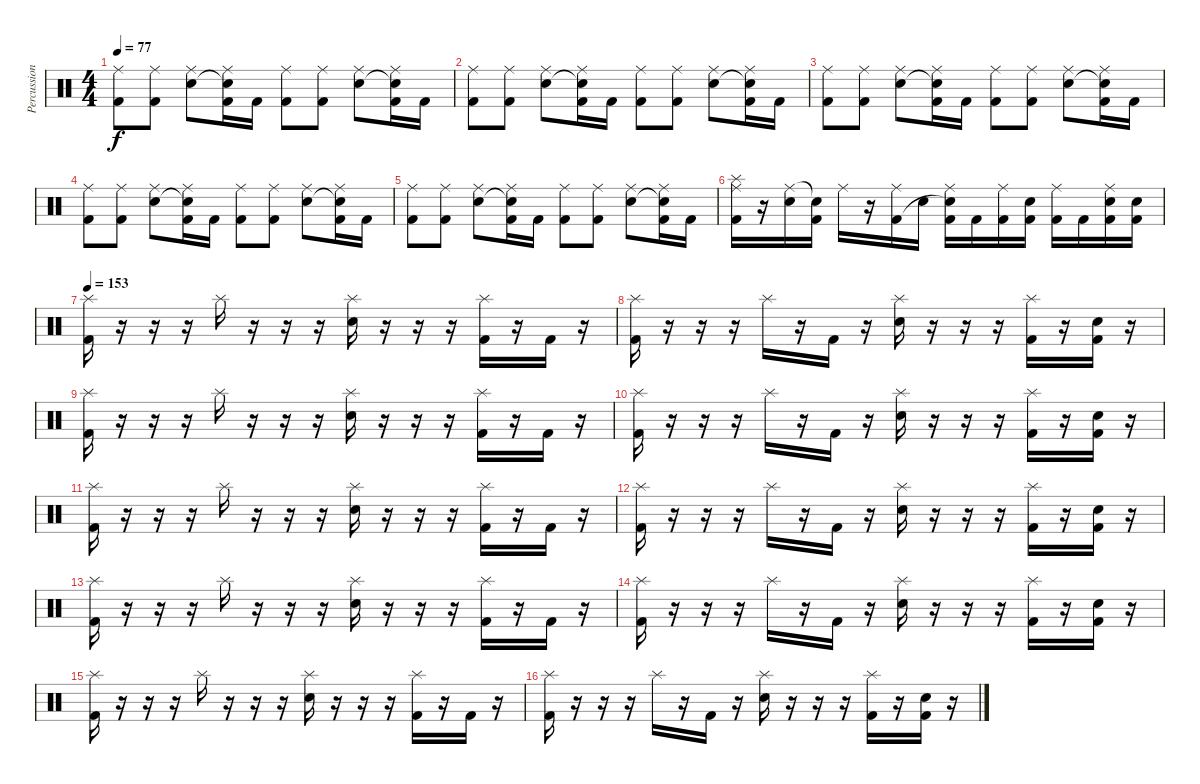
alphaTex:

\track ("Percussion" "Percussion") {instrument percussion}
\staff {score}
\articulation defaults
\ts (4 4)
\tempo 77
\clef neutral
\ks c
("Ride (middle)" "Kick (hit) 2").8{dy f} ("Ride (middle)" "Kick (hit) 2").8 ("Ride (middle)" "Electric Snare (hit)").8 ("Ride (middle)" "Snare (hit)"{t} "Kick (hit) 2").16 "Kick (hit) 2".16 ("Ride (middle)" "Kick (hit) 2").8 ("Ride (middle)" "Kick (hit) 2").8 ("Ride (middle)" "Electric Snare (hit)").8 ("Ride (middle)" "Snare (hit)"{t} "Kick (hit) 2").16 "Kick (hit) 2".16 |
("Ride (middle)" "Kick (hit) 2").8 ("Ride (middle)" "Kick (hit) 2").8 ("Ride (middle)" "Electric Snare (hit)").8 ("Ride (middle)" "Snare (hit)"{t} "Kick (hit) 2").16 "Kick (hit) 2".16 ("Ride (middle)" "Kick (hit) 2").8 ("Ride (middle)" "Kick (hit) 2").8 ("Ride (middle)" "Electric Snare (hit)").8 ("Ride (middle)" "Snare (hit)"{t} "Kick (hit) 2").16 "Kick (hit) 2".16 |
("Ride (middle)" "Kick (hit) 2").8 ("Ride (middle)" "Kick (hit) 2").8 ("Ride (middle)" "Electric Snare (hit)").8 ("Ride (middle)" "Snare (hit)"{t} "Kick (hit) 2").16 "Kick (hit) 2".16 ("Ride (middle)" "Kick (hit) 2").8 ("Ride (middle)" "Kick (hit) 2").8 ("Ride (middle)" "Electric Snare (hit)").8 ("Ride (middle)" "Snare (hit)"{t} "Kick (hit) 2").16 "Kick (hit) 2".16 |
("Ride (middle)" "Kick (hit) 2").8 ("Ride (middle)" "Kick (hit) 2").8 ("Ride (middle)" "Electric Snare (hit)").8 ("Ride (middle)" "Snare (hit)"{t} "Kick (hit) 2").16 "Kick (hit) 2".16 ("Ride (middle)" "Kick (hit) 2").8 ("Ride (middle)" "Kick (hit) 2").8 ("Ride (middle)" "Electric Snare (hit)").8 ("Ride (middle)" "Snare (hit)"{t} "Kick (hit) 2").16 "Kick (hit) 2".16 |
("Ride (middle)" "Kick (hit) 2").8 ("Ride (middle)" "Kick (hit) 2").8 ("Ride (middle)" "Electric Snare (hit)").8 ("Ride (middle)" "Snare (hit)"{t} "Kick (hit) 2").16 "Kick (hit) 2".16 ("Ride (middle)" "Kick (hit) 2").8 ("Ride (middle)" "Kick (hit) 2").8 ("Ride (middle)" "Electric Snare (hit)").8 ("Ride (middle)" "Snare (hit)"{t} "Kick (hit) 2").16 "Kick (hit) 2".16 |
("Splash (hit)" "Ride (middle)" "Kick (hit) 2").16 r.16 ("Ride (middle)" "Electric Snare (hit)").16 ("Snare (hit)"{t} "Kick (hit) 2").16 "Ride (middle)".16 r.16 ("Ride (middle)" "Kick (hit) 2").16 "Electric Snare (hit)".16 ("Ride (middle)" "Snare (hit)"{t} "Kick (hit) 2").16 "Kick (hit) 2".16 ("Ride (middle)" "Kick (hit) 2").16 ("Electric Snare (hit)" "Kick (hit) 2").16 ("Ride (middle)" "Kick (hit) 2").16 "Kick (hit) 2".16 ("Ride (middle)" "Electric Snare (hit)" "Kick (hit) 2").16 ("Electric Snare (hit)" "Kick (hit) 2").16 |
\tempo 153
("Splash (hit)" "Kick (hit) 2").16 r.16 r.16 r.16 "Splash (hit)".16 r.16 r.16 r.16 ("Splash (hit)" "Electric Snare (hit)").16 r.16 r.16 r.16 ("Splash (hit)" "Kick (hit) 2").16 r.16 "Kick (hit) 2".16 r.16 |
("Splash (hit)" "Kick (hit) 2").16 r.16 r.16 r.16 "Splash (hit)".16 r.16 "Kick (hit) 2".16 r.16 ("Splash (hit)" "Electric Snare (hit)").16 r.16 r.16 r.16 ("Splash (hit)" "Kick (hit) 2").16 r.16 ("Electric Snare (hit)" "Kick (hit) 2").16 r.16 |
("Splash (hit)" "Kick (hit) 2").16 r.16 r.16 r.16 "Splash (hit)".16 r.16 r.16 r.16 ("Splash (hit)" "Electric Snare (hit)").16 r.16 r.16 r.16 ("Splash (hit)" "Kick (hit) 2").16 r.16 "Kick (hit) 2".16 r.16 |
("Splash (hit)" "Kick (hit) 2").16 r.16 r.16 r.16 "Splash (hit)".16 r.16 "Kick (hit) 2".16 r.16 ("Splash (hit)" "Electric Snare (hit)").16 r.16 r.16 r.16 ("Splash (hit)" "Kick (hit) 2").16 r.16 ("Electric Snare (hit)" "Kick (hit) 2").16 r.16 |
("Splash (hit)" "Kick (hit) 2").16 r.16 r.16 r.16 "Splash (hit)".16 r.16 r.16 r.16 ("Splash (hit)" "Electric Snare (hit)").16 r.16 r.16 r.16 ("Splash (hit)" "Kick (hit) 2").16 r.16 "Kick (hit) 2".16 r.16 |
("Splash (hit)" "Kick (hit) 2").16 r.16 r.16 r.16 "Splash (hit)".16 r.16 "Kick (hit) 2".16 r.16 ("Splash (hit)" "Electric Snare (hit)").16 r.16 r.16 r.16 ("Splash (hit)" "Kick (hit) 2").16 r.16 ("Electric Snare (hit)" "Kick (hit) 2").16 r.16 |
("Splash (hit)" "Kick (hit) 2").16 r.16 r.16 r.16 "Splash (hit)".16 r.16 r.16 r.16 ("Splash (hit)" "Electric Snare (hit)").16 r.16 r.16 r.16 ("Splash (hit)" "Kick (hit) 2").16 r.16 "Kick (hit) 2".16 r.16 |
("Splash (hit)" "Kick (hit) 2").16 r.16 r.16 r.16 "Splash (hit)".16 r.16 "Kick (hit) 2".16 r.16 ("Splash (hit)" "Electric Snare (hit)").16 r.16 r.16 r.16 ("Splash (hit)" "Kick (hit) 2").16 r.16 ("Electric Snare (hit)" "Kick (hit) 2").16 r.16 |
("Splash (hit)" "Kick (hit) 2").16 r.16 r.16 r.16 "Splash (hit)".16 r.16 r.16 r.16 ("Splash (hit)" "Electric Snare (hit)").16 r.16 r.16 r.16 ("Splash (hit)" "Kick (hit) 2").16 r.16 "Kick (hit) 2".16 r.16 |
("Splash (hit)" "Kick (hit) 2").16 r.16 r.16 r.16 "Splash (hit)".16 r.16 "Kick (hit) 2".16 r.16 ("Splash (hit)" "Electric Snare (hit)").16 r.16 r.16 r.16 ("Splash (hit)" "Kick (hit) 2").16 r.16 ("Electric Snare (hit)" "Kick (hit) 2").16 r.16
